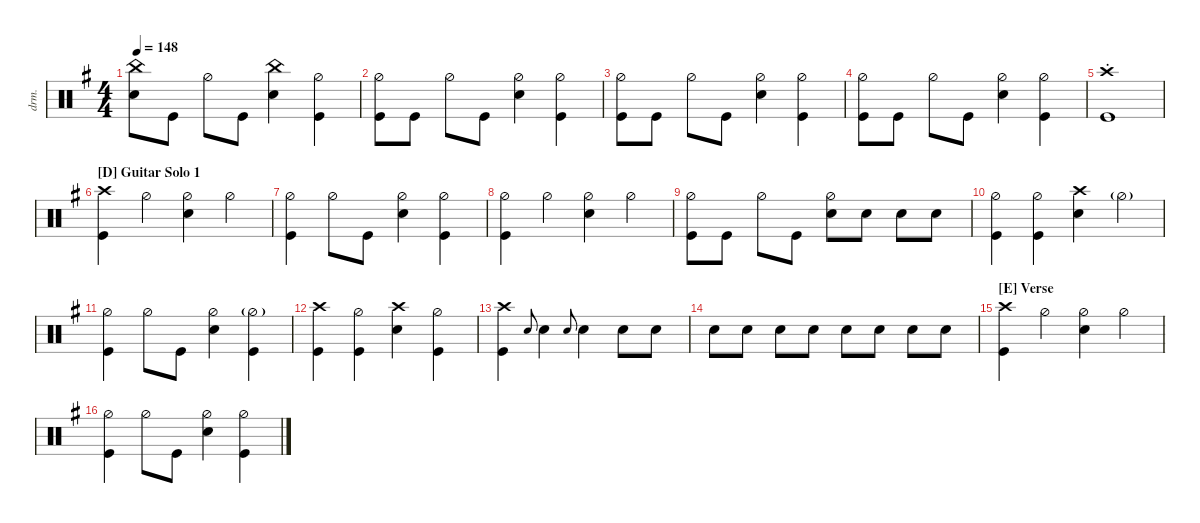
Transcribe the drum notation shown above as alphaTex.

\defaultSystemsLayout 4
\hideDynamics
\bracketExtendMode nobrackets
\otherSystemsTrackNameOrientation horizontal
\track ("Drums" "drm.") {multiBarRest instrument percussion}
\staff
\articulation defaults
\ts (4 4)
\tempo 148
\clef neutral
\ks eminor
("Snare (hit) 2"{acc forcenatural} "China (hit)"{acc forcenatural}).8{dy mf beam Down} "Kick (hit)"{acc forcenatural}.8{beam Down} "Hi-Hat (half)"{acc forcenatural}.8{beam Down} "Kick (hit)"{acc forcenatural}.8{beam Down} ("Snare (hit) 2"{acc forcenatural} "China (hit)"{acc forcenatural}).4{beam Down} ("Kick (hit)"{acc forcenatural} "Hi-Hat (half)"{acc forcenatural}).4{beam Down} |
("Hi-Hat (half)"{acc forcenatural} "Kick (hit)"{acc forcenatural}).8{beam Down} "Kick (hit)"{acc forcenatural}.8{beam Down} "Hi-Hat (half)"{acc forcenatural}.8{beam Down} "Kick (hit)"{acc forcenatural}.8{beam Down} ("Snare (hit) 2"{acc forcenatural} "Hi-Hat (half)"{acc forcenatural}).4{beam Down} ("Kick (hit)"{acc forcenatural} "Hi-Hat (half)"{acc forcenatural}).4{beam Down} |
("Hi-Hat (half)"{acc forcenatural} "Kick (hit)"{acc forcenatural}).8{beam Down} "Kick (hit)"{acc forcenatural}.8{beam Down} "Hi-Hat (half)"{acc forcenatural}.8{beam Down} "Kick (hit)"{acc forcenatural}.8{beam Down} ("Snare (hit) 2"{acc forcenatural} "Hi-Hat (half)"{acc forcenatural}).4{beam Down} ("Kick (hit)"{acc forcenatural} "Hi-Hat (half)"{acc forcenatural}).4{beam Down} |
("Hi-Hat (half)"{acc forcenatural} "Kick (hit)"{acc forcenatural}).8{beam Down} "Kick (hit)"{acc forcenatural}.8{beam Down} "Hi-Hat (half)"{acc forcenatural}.8{beam Down} "Kick (hit)"{acc forcenatural}.8{beam Down} ("Snare (hit) 2"{acc forcenatural} "Hi-Hat (half)"{acc forcenatural}).4{beam Down} ("Kick (hit)"{acc forcenatural} "Hi-Hat (half)"{acc forcenatural}).4{beam Down} |
("Kick (hit)"{acc forcenatural} "Crash high (hit)"{st acc forcenatural}).1{beam Down} |
\section ("D" "Guitar Solo 1")
("Kick (hit)"{acc forcenatural} "Crash high (hit)"{acc forcenatural}).4{beam Down} "Hi-Hat (half)"{acc forcenatural}.4{beam Down} ("Snare (hit) 2"{acc forcenatural} "Hi-Hat (half)"{acc forcenatural}).4{beam Down} "Hi-Hat (half)"{acc forcenatural}.4{beam Down} |
("Kick (hit)"{acc forcenatural} "Hi-Hat (half)"{acc forcenatural}).4{beam Down} "Hi-Hat (half)"{acc forcenatural}.8{beam Down} "Kick (hit)"{acc forcenatural}.8{beam Down} ("Hi-Hat (half)"{acc forcenatural} "Snare (hit) 2"{acc forcenatural}).4{beam Down} ("Kick (hit)"{acc forcenatural} "Hi-Hat (half)"{acc forcenatural}).4{beam Down} |
("Kick (hit)"{acc forcenatural} "Hi-Hat (half)"{acc forcenatural}).4{beam Down} "Hi-Hat (half)"{acc forcenatural}.4{beam Down} ("Snare (hit) 2"{acc forcenatural} "Hi-Hat (half)"{acc forcenatural}).4{beam Down} "Hi-Hat (half)"{acc forcenatural}.4{beam Down} |
("Kick (hit)"{acc forcenatural} "Hi-Hat (half)"{acc forcenatural}).8{beam Down} "Kick (hit)"{acc forcenatural}.8{beam Down} "Hi-Hat (half)"{acc forcenatural}.8{beam Down} "Kick (hit)"{acc forcenatural}.8{beam Down} ("Snare (hit) 2"{acc forcenatural} "Hi-Hat (half)"{acc forcenatural}).8{beam Down} "Snare (hit) 2"{acc forcenatural}.8{beam Down} "Snare (hit) 2"{acc forcenatural}.8{beam Down} "Snare (hit) 2"{acc forcenatural}.8{beam Down} |
("Hi-Hat (half)"{acc forcenatural} "Kick (hit)"{acc forcenatural}).4{beam Down} ("Hi-Hat (half)"{acc forcenatural} "Kick (hit)"{acc forcenatural}).4{beam Down} ("Snare (hit) 2"{acc forcenatural} "Crash high (hit)"{acc forcenatural}).4{beam Down} "Hi-Hat (half)"{g acc forcenatural}.4{beam Down} |
("Kick (hit)"{acc forcenatural} "Hi-Hat (half)"{acc forcenatural}).4{beam Down} "Hi-Hat (half)"{acc forcenatural}.8{beam Down} "Kick (hit)"{acc forcenatural}.8{beam Down} ("Snare (hit) 2"{acc forcenatural} "Hi-Hat (half)"{acc forcenatural}).4{beam Down} ("Kick (hit)"{acc forcenatural} "Hi-Hat (half)"{g acc forcenatural}).4{beam Down} |
("Crash high (hit)"{acc forcenatural} "Kick (hit)"{acc forcenatural}).4{beam Down} ("Hi-Hat (half)"{acc forcenatural} "Kick (hit)"{acc forcenatural}).4{beam Down} ("Crash high (hit)"{acc forcenatural} "Snare (hit) 2"{acc forcenatural}).4{beam Down} ("Hi-Hat (half)"{acc forcenatural} "Kick (hit)"{acc forcenatural}).4{beam Down} |
("Kick (hit)"{acc forcenatural} "Crash high (hit)"{acc forcenatural}).4{beam Down} "Snare (hit) 2"{acc forcenatural}.8{gr onbeat beam Up} "Snare (hit) 2"{acc forcenatural}.4{beam Down} "Snare (hit) 2"{acc forcenatural}.8{gr onbeat beam Up} "Snare (hit) 2"{acc forcenatural}.4{beam Down} "Snare (hit) 2"{acc forcenatural}.8{beam Down} "Snare (hit) 2"{acc forcenatural}.8{beam Down} |
"Snare (hit) 2"{acc forcenatural}.8{beam Down} "Snare (hit) 2"{acc forcenatural}.8{beam Down} "Snare (hit) 2"{acc forcenatural}.8{beam Down} "Snare (hit) 2"{acc forcenatural}.8{beam Down} "Snare (hit) 2"{acc forcenatural}.8{beam Down} "Snare (hit) 2"{acc forcenatural}.8{beam Down} "Snare (hit) 2"{acc forcenatural}.8{beam Down} "Snare (hit) 2"{acc forcenatural}.8{beam Down} |
\section ("E" "Verse")
("Kick (hit)"{acc forcenatural} "Crash high (hit)"{acc forcenatural}).4{beam Down} "Hi-Hat (half)"{acc forcenatural}.4{beam Down} ("Snare (hit) 2"{acc forcenatural} "Hi-Hat (half)"{acc forcenatural}).4{beam Down} "Hi-Hat (half)"{acc forcenatural}.4{beam Down} |
("Kick (hit)"{acc forcenatural} "Hi-Hat (half)"{acc forcenatural}).4{beam Down} "Hi-Hat (half)"{acc forcenatural}.8{beam Down} "Kick (hit)"{acc forcenatural}.8{beam Down} ("Hi-Hat (half)"{acc forcenatural} "Snare (hit) 2"{acc forcenatural}).4{beam Down} ("Kick (hit)"{acc forcenatural} "Hi-Hat (half)"{acc forcenatural}).4{beam Down}
